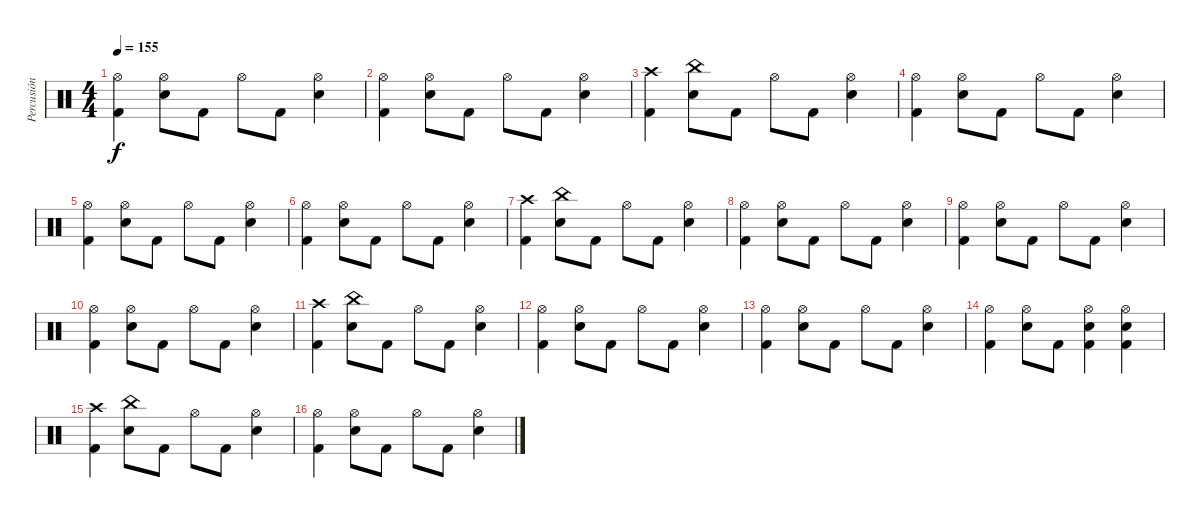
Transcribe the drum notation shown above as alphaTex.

\track ("Percusión" "Percusión") {instrument percussion}
\staff {score}
\articulation defaults
\ts (4 4)
\tempo 155
\clef neutral
\ks c
("Hi-Hat (open)" "Kick (hit) 2").4{dy f} ("Hi-Hat (open)" "Electric Snare (hit)").8 "Kick (hit) 2".8 "Hi-Hat (open)".8 "Kick (hit) 2".8 ("Hi-Hat (open)" "Electric Snare (hit)").4 |
("Hi-Hat (open)" "Kick (hit) 2").4 ("Hi-Hat (open)" "Electric Snare (hit)").8 "Kick (hit) 2".8 "Hi-Hat (open)".8 "Kick (hit) 2".8 ("Hi-Hat (open)" "Electric Snare (hit)").4 |
("Crash high (hit)" "Kick (hit) 2").4 ("China (hit)" "Electric Snare (hit)").8 "Kick (hit) 2".8 "Hi-Hat (open)".8 "Kick (hit) 2".8 ("Hi-Hat (open)" "Electric Snare (hit)").4 |
("Hi-Hat (open)" "Kick (hit) 2").4 ("Hi-Hat (open)" "Electric Snare (hit)").8 "Kick (hit) 2".8 "Hi-Hat (open)".8 "Kick (hit) 2".8 ("Hi-Hat (open)" "Electric Snare (hit)").4 |
("Hi-Hat (open)" "Kick (hit) 2").4 ("Hi-Hat (open)" "Electric Snare (hit)").8 "Kick (hit) 2".8 "Hi-Hat (open)".8 "Kick (hit) 2".8 ("Hi-Hat (open)" "Electric Snare (hit)").4 |
("Hi-Hat (open)" "Kick (hit) 2").4 ("Hi-Hat (open)" "Electric Snare (hit)").8 "Kick (hit) 2".8 "Hi-Hat (open)".8 "Kick (hit) 2".8 ("Hi-Hat (open)" "Electric Snare (hit)").4 |
("Crash high (hit)" "Kick (hit) 2").4 ("China (hit)" "Electric Snare (hit)").8 "Kick (hit) 2".8 "Hi-Hat (open)".8 "Kick (hit) 2".8 ("Hi-Hat (open)" "Electric Snare (hit)").4 |
("Hi-Hat (open)" "Kick (hit) 2").4 ("Hi-Hat (open)" "Electric Snare (hit)").8 "Kick (hit) 2".8 "Hi-Hat (open)".8 "Kick (hit) 2".8 ("Hi-Hat (open)" "Electric Snare (hit)").4 |
("Hi-Hat (open)" "Kick (hit) 2").4 ("Hi-Hat (open)" "Electric Snare (hit)").8 "Kick (hit) 2".8 "Hi-Hat (open)".8 "Kick (hit) 2".8 ("Hi-Hat (open)" "Electric Snare (hit)").4 |
("Hi-Hat (open)" "Kick (hit) 2").4 ("Hi-Hat (open)" "Electric Snare (hit)").8 "Kick (hit) 2".8 "Hi-Hat (open)".8 "Kick (hit) 2".8 ("Hi-Hat (open)" "Electric Snare (hit)").4 |
("Crash high (hit)" "Kick (hit) 2").4 ("China (hit)" "Electric Snare (hit)").8 "Kick (hit) 2".8 "Hi-Hat (open)".8 "Kick (hit) 2".8 ("Hi-Hat (open)" "Electric Snare (hit)").4 |
("Hi-Hat (open)" "Kick (hit) 2").4 ("Hi-Hat (open)" "Electric Snare (hit)").8 "Kick (hit) 2".8 "Hi-Hat (open)".8 "Kick (hit) 2".8 ("Hi-Hat (open)" "Electric Snare (hit)").4 |
("Hi-Hat (open)" "Kick (hit) 2").4 ("Hi-Hat (open)" "Electric Snare (hit)").8 "Kick (hit) 2".8 "Hi-Hat (open)".8 "Kick (hit) 2".8 ("Hi-Hat (open)" "Electric Snare (hit)").4 |
("Hi-Hat (open)" "Kick (hit) 2").4 ("Hi-Hat (open)" "Electric Snare (hit)").8 "Kick (hit) 2".8 ("Hi-Hat (open)" "Electric Snare (hit)" "Kick (hit) 2").4 ("Hi-Hat (open)" "Electric Snare (hit)" "Kick (hit) 2").4 |
("Crash high (hit)" "Kick (hit) 2").4 ("China (hit)" "Electric Snare (hit)").8 "Kick (hit) 2".8 "Hi-Hat (open)".8 "Kick (hit) 2".8 ("Hi-Hat (open)" "Electric Snare (hit)").4 |
("Hi-Hat (open)" "Kick (hit) 2").4 ("Hi-Hat (open)" "Electric Snare (hit)").8 "Kick (hit) 2".8 "Hi-Hat (open)".8 "Kick (hit) 2".8 ("Hi-Hat (open)" "Electric Snare (hit)").4
